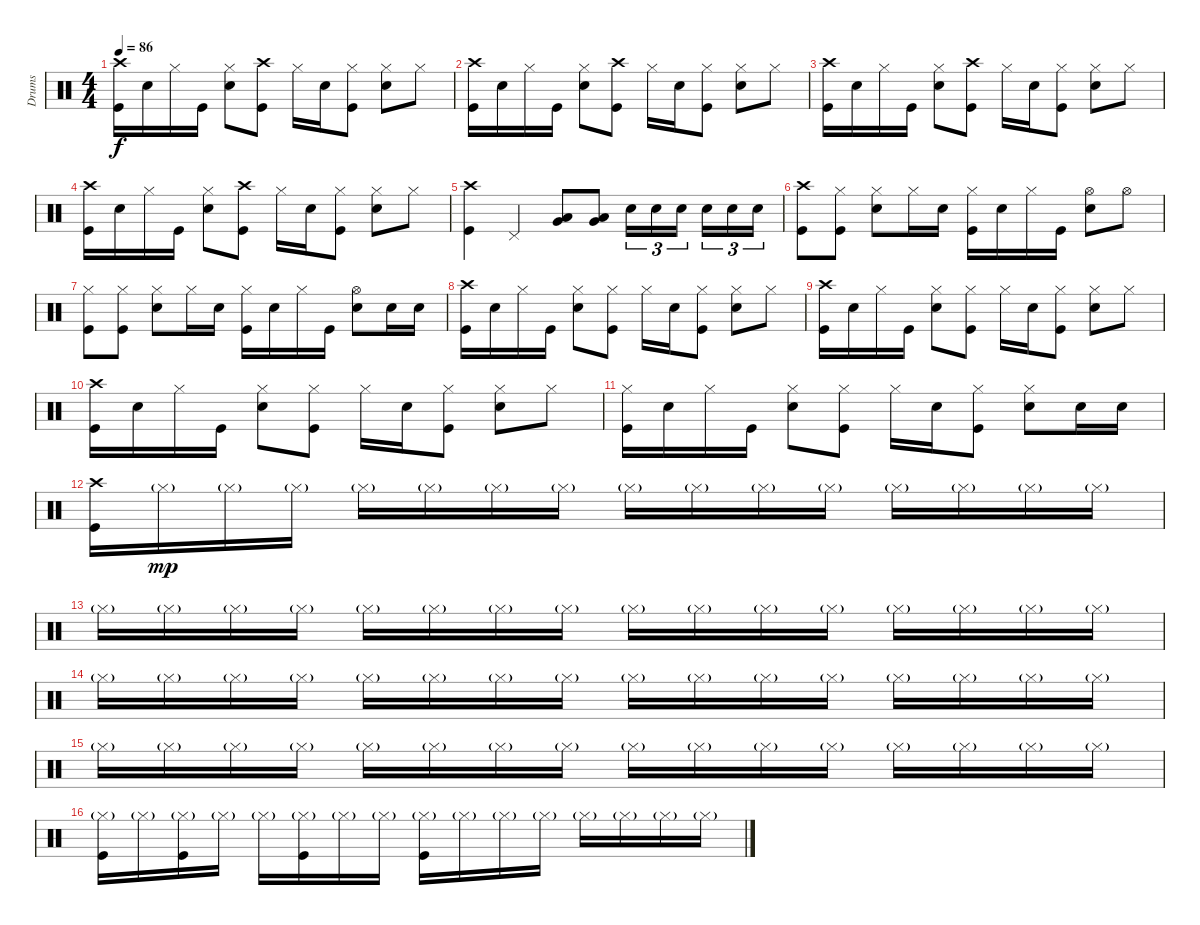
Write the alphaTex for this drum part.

\track ("Drums" "Drums") {instrument percussion}
\staff {score}
\articulation defaults
\ts (4 4)
\tempo 86
\clef neutral
\ks c
("Crash high (hit)" "Kick (hit)").16{dy f} "Snare (hit) 2".16 "Hi-Hat (closed)".16 "Kick (hit)".16 ("Hi-Hat (closed)" "Snare (hit) 2").8 ("Crash high (hit)" "Kick (hit)").8 "Hi-Hat (closed)".16 "Snare (hit) 2".16 ("Hi-Hat (closed)" "Kick (hit)").8 ("Hi-Hat (closed)" "Snare (hit) 2").8 "Hi-Hat (closed)".8 |
("Crash high (hit)" "Kick (hit)").16 "Snare (hit) 2".16 "Hi-Hat (closed)".16 "Kick (hit)".16 ("Hi-Hat (closed)" "Snare (hit) 2").8 ("Crash high (hit)" "Kick (hit)").8 "Hi-Hat (closed)".16 "Snare (hit) 2".16 ("Hi-Hat (closed)" "Kick (hit)").8 ("Hi-Hat (closed)" "Snare (hit) 2").8 "Hi-Hat (closed)".8 |
("Crash high (hit)" "Kick (hit)").16 "Snare (hit) 2".16 "Hi-Hat (closed)".16 "Kick (hit)".16 ("Hi-Hat (closed)" "Snare (hit) 2").8 ("Crash high (hit)" "Kick (hit)").8 "Hi-Hat (closed)".16 "Snare (hit) 2".16 ("Hi-Hat (closed)" "Kick (hit)").8 ("Hi-Hat (closed)" "Snare (hit) 2").8 "Hi-Hat (closed)".8 |
("Crash high (hit)" "Kick (hit)").16 "Snare (hit) 2".16 "Hi-Hat (closed)".16 "Kick (hit)".16 ("Hi-Hat (closed)" "Snare (hit) 2").8 ("Crash high (hit)" "Kick (hit)").8 "Hi-Hat (closed)".16 "Snare (hit) 2".16 ("Hi-Hat (closed)" "Kick (hit)").8 ("Hi-Hat (closed)" "Snare (hit) 2").8 "Hi-Hat (closed)".8 |
("Crash high (hit)" "Kick (hit)").4 "Pedal Hi-Hat (hit)".4 ("Very Low Tom (hit)" "Low Floor Tom (hit)").8 ("Very Low Tom (hit)" "Low Floor Tom (hit)").8 "Snare (hit) 2".16{tu (3 2)} "Snare (hit) 2".16{tu (3 2)} "Snare (hit) 2".16{tu (3 2) beam splitsecondary} "Snare (hit) 2".16{tu (3 2)} "Snare (hit) 2".16{tu (3 2)} "Snare (hit) 2".16{tu (3 2)} |
("Crash high (hit)" "Kick (hit)").8 ("Hi-Hat (closed)" "Kick (hit)").8 ("Hi-Hat (closed)" "Snare (hit) 2").8 "Hi-Hat (closed)".16 "Snare (hit) 2".16 ("Hi-Hat (closed)" "Kick (hit)").16 "Snare (hit) 2".16 "Hi-Hat (closed)".16 "Kick (hit)".16 ("Hi-Hat (open)" "Snare (hit) 2").8 "Hi-Hat (open)".8 |
("Hi-Hat (closed)" "Kick (hit)").8 ("Hi-Hat (closed)" "Kick (hit)").8 ("Hi-Hat (closed)" "Snare (hit) 2").8 "Hi-Hat (closed)".16 "Snare (hit) 2".16 ("Hi-Hat (closed)" "Kick (hit)").16 "Snare (hit) 2".16 "Hi-Hat (closed)".16 "Kick (hit)".16 ("Hi-Hat (open)" "Snare (hit) 2").8 "Snare (hit) 2".16 "Snare (hit) 2".16 |
("Crash high (hit)" "Kick (hit)").16 "Snare (hit) 2".16 "Hi-Hat (closed)".16 "Kick (hit)".16 ("Hi-Hat (closed)" "Snare (hit) 2").8 ("Hi-Hat (closed)" "Kick (hit)").8 "Hi-Hat (closed)".16 "Snare (hit) 2".16 ("Hi-Hat (closed)" "Kick (hit)").8 ("Hi-Hat (closed)" "Snare (hit) 2").8 "Hi-Hat (closed)".8 |
("Crash high (hit)" "Kick (hit)").16 "Snare (hit) 2".16 "Hi-Hat (closed)".16 "Kick (hit)".16 ("Hi-Hat (closed)" "Snare (hit) 2").8 ("Hi-Hat (closed)" "Kick (hit)").8 "Hi-Hat (closed)".16 "Snare (hit) 2".16 ("Hi-Hat (closed)" "Kick (hit)").8 ("Hi-Hat (closed)" "Snare (hit) 2").8 "Hi-Hat (closed)".8 |
("Crash high (hit)" "Kick (hit)").16 "Snare (hit) 2".16 "Hi-Hat (closed)".16 "Kick (hit)".16 ("Hi-Hat (closed)" "Snare (hit) 2").8 ("Hi-Hat (closed)" "Kick (hit)").8 "Hi-Hat (closed)".16 "Snare (hit) 2".16 ("Hi-Hat (closed)" "Kick (hit)").8 ("Hi-Hat (closed)" "Snare (hit) 2").8 "Hi-Hat (closed)".8 |
("Hi-Hat (closed)" "Kick (hit)").16 "Snare (hit) 2".16 "Hi-Hat (closed)".16 "Kick (hit)".16 ("Hi-Hat (closed)" "Snare (hit) 2").8 ("Hi-Hat (closed)" "Kick (hit)").8 "Hi-Hat (closed)".16 "Snare (hit) 2".16 ("Hi-Hat (closed)" "Kick (hit)").8 ("Hi-Hat (closed)" "Snare (hit) 2").8 "Snare (hit) 2".16 "Snare (hit) 2".16 |
("Crash high (hit)" "Kick (hit)").16 "Hi-Hat (closed)"{g}.16{dy mp} "Hi-Hat (closed)"{g}.16 "Hi-Hat (closed)"{g}.16 "Hi-Hat (closed)"{g}.16 "Hi-Hat (closed)"{g}.16 "Hi-Hat (closed)"{g}.16 "Hi-Hat (closed)"{g}.16 "Hi-Hat (closed)"{g}.16 "Hi-Hat (closed)"{g}.16 "Hi-Hat (closed)"{g}.16 "Hi-Hat (closed)"{g}.16 "Hi-Hat (closed)"{g}.16 "Hi-Hat (closed)"{g}.16 "Hi-Hat (closed)"{g}.16 "Hi-Hat (closed)"{g}.16 |
"Hi-Hat (closed)"{g}.16 "Hi-Hat (closed)"{g}.16 "Hi-Hat (closed)"{g}.16 "Hi-Hat (closed)"{g}.16 "Hi-Hat (closed)"{g}.16 "Hi-Hat (closed)"{g}.16 "Hi-Hat (closed)"{g}.16 "Hi-Hat (closed)"{g}.16 "Hi-Hat (closed)"{g}.16 "Hi-Hat (closed)"{g}.16 "Hi-Hat (closed)"{g}.16 "Hi-Hat (closed)"{g}.16 "Hi-Hat (closed)"{g}.16 "Hi-Hat (closed)"{g}.16 "Hi-Hat (closed)"{g}.16 "Hi-Hat (closed)"{g}.16 |
"Hi-Hat (closed)"{g}.16 "Hi-Hat (closed)"{g}.16 "Hi-Hat (closed)"{g}.16 "Hi-Hat (closed)"{g}.16 "Hi-Hat (closed)"{g}.16 "Hi-Hat (closed)"{g}.16 "Hi-Hat (closed)"{g}.16 "Hi-Hat (closed)"{g}.16 "Hi-Hat (closed)"{g}.16 "Hi-Hat (closed)"{g}.16 "Hi-Hat (closed)"{g}.16 "Hi-Hat (closed)"{g}.16 "Hi-Hat (closed)"{g}.16 "Hi-Hat (closed)"{g}.16 "Hi-Hat (closed)"{g}.16 "Hi-Hat (closed)"{g}.16 |
"Hi-Hat (closed)"{g}.16 "Hi-Hat (closed)"{g}.16 "Hi-Hat (closed)"{g}.16 "Hi-Hat (closed)"{g}.16 "Hi-Hat (closed)"{g}.16 "Hi-Hat (closed)"{g}.16 "Hi-Hat (closed)"{g}.16 "Hi-Hat (closed)"{g}.16 "Hi-Hat (closed)"{g}.16 "Hi-Hat (closed)"{g}.16 "Hi-Hat (closed)"{g}.16 "Hi-Hat (closed)"{g}.16 "Hi-Hat (closed)"{g}.16 "Hi-Hat (closed)"{g}.16 "Hi-Hat (closed)"{g}.16 "Hi-Hat (closed)"{g}.16 |
("Hi-Hat (closed)"{g} "Kick (hit)").16 "Hi-Hat (closed)"{g}.16 ("Hi-Hat (closed)"{g} "Kick (hit)").16 "Hi-Hat (closed)"{g}.16 "Hi-Hat (closed)"{g}.16 ("Hi-Hat (closed)"{g} "Kick (hit)").16 "Hi-Hat (closed)"{g}.16 "Hi-Hat (closed)"{g}.16 ("Hi-Hat (closed)"{g} "Kick (hit)").16 "Hi-Hat (closed)"{g}.16 "Hi-Hat (closed)"{g}.16 "Hi-Hat (closed)"{g}.16 "Hi-Hat (closed)"{g}.16 "Hi-Hat (closed)"{g}.16 "Hi-Hat (closed)"{g}.16 "Hi-Hat (closed)"{g}.16
